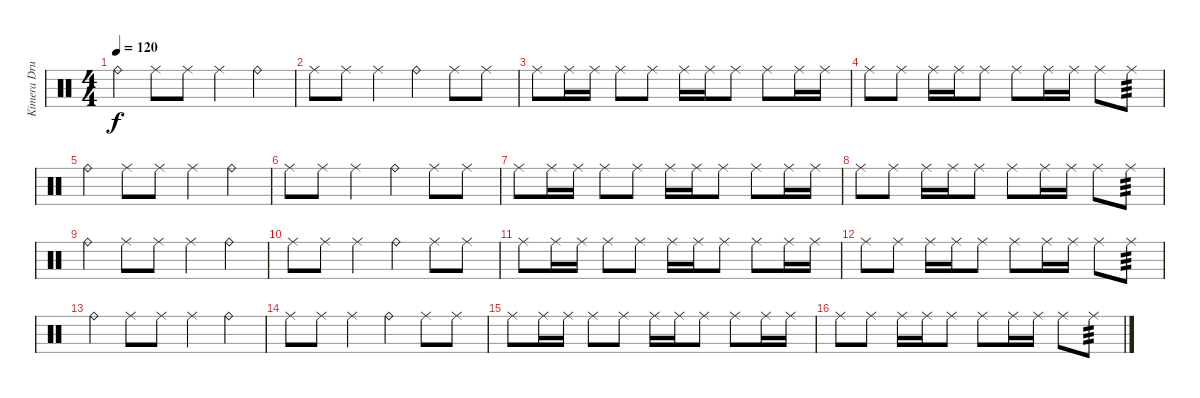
\track ("Kimera Drummer" "Kimera Dru") {instrument percussion}
\staff {score}
\articulation defaults
\ts (4 4)
\tempo 120
\clef neutral
\ks c "Ride (bell)".4{dy f} "Ride (middle)".8 "Ride (middle)".8 "Ride (middle)".4 "Ride (bell)".4
|
"Ride (middle)".8 "Ride (middle)".8 "Ride (middle)".4 "Ride (bell)".4 "Ride (middle)".8 "Ride (middle)".8 |
"Ride (middle)".8 "Ride (middle)".16 "Ride (middle)".16 "Ride (middle)".8 "Ride (middle)".8 "Ride (middle)".16 "Ride (middle)".16 "Ride (middle)".8 "Ride (middle)".8 "Ride (middle)".16 "Ride (middle)".16 |
"Ride (middle)".8 "Ride (middle)".8 "Ride (middle)".16 "Ride (middle)".16 "Ride (middle)".8 "Ride (middle)".8 "Ride (middle)".16 "Ride (middle)".16 "Ride (middle)".8 "Ride (middle)".8{tp 3} |
"Ride (bell)".4 "Ride (middle)".8 "Ride (middle)".8 "Ride (middle)".4 "Ride (bell)".4 |
"Ride (middle)".8 "Ride (middle)".8 "Ride (middle)".4 "Ride (bell)".4 "Ride (middle)".8 "Ride (middle)".8 |
"Ride (middle)".8 "Ride (middle)".16 "Ride (middle)".16 "Ride (middle)".8 "Ride (middle)".8 "Ride (middle)".16 "Ride (middle)".16 "Ride (middle)".8 "Ride (middle)".8 "Ride (middle)".16 "Ride (middle)".16 |
"Ride (middle)".8 "Ride (middle)".8 "Ride (middle)".16 "Ride (middle)".16 "Ride (middle)".8 "Ride (middle)".8 "Ride (middle)".16 "Ride (middle)".16 "Ride (middle)".8 "Ride (middle)".8{tp 3} |
"Ride (bell)".4 "Ride (middle)".8 "Ride (middle)".8 "Ride (middle)".4 "Ride (bell)".4 |
"Ride (middle)".8 "Ride (middle)".8 "Ride (middle)".4 "Ride (bell)".4 "Ride (middle)".8 "Ride (middle)".8 |
"Ride (middle)".8 "Ride (middle)".16 "Ride (middle)".16 "Ride (middle)".8 "Ride (middle)".8 "Ride (middle)".16 "Ride (middle)".16 "Ride (middle)".8 "Ride (middle)".8 "Ride (middle)".16 "Ride (middle)".16 |
"Ride (middle)".8 "Ride (middle)".8 "Ride (middle)".16 "Ride (middle)".16 "Ride (middle)".8 "Ride (middle)".8 "Ride (middle)".16 "Ride (middle)".16 "Ride (middle)".8 "Ride (middle)".8{tp 3} |
"Ride (bell)".4 "Ride (middle)".8 "Ride (middle)".8 "Ride (middle)".4 "Ride (bell)".4 |
"Ride (middle)".8 "Ride (middle)".8 "Ride (middle)".4 "Ride (bell)".4 "Ride (middle)".8 "Ride (middle)".8 |
"Ride (middle)".8 "Ride (middle)".16 "Ride (middle)".16 "Ride (middle)".8 "Ride (middle)".8 "Ride (middle)".16 "Ride (middle)".16 "Ride (middle)".8 "Ride (middle)".8 "Ride (middle)".16 "Ride (middle)".16 |
"Ride (middle)".8 "Ride (middle)".8 "Ride (middle)".16 "Ride (middle)".16 "Ride (middle)".8 "Ride (middle)".8 "Ride (middle)".16 "Ride (middle)".16 "Ride (middle)".8 "Ride (middle)".8{tp 3}
